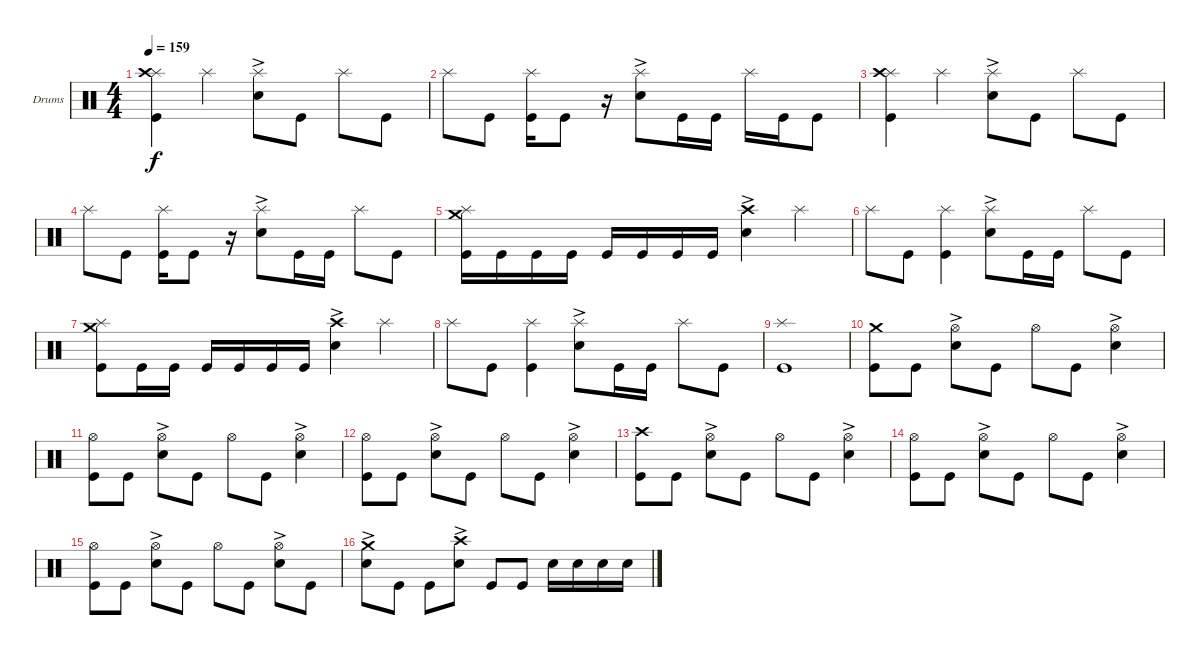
\defaultSystemsLayout 4
\bracketExtendMode groupsimilarinstruments
\firstSystemTrackNameOrientation horizontal
\otherSystemsTrackNameOrientation horizontal
\track ("Drumkit" "Drums") {instrument percussion}
\staff {score}
\articulation defaults
\ts (4 4)
\tempo 159
\clef neutral
\ks c
("Kick (hit)" "Splash (hit)" "Crash high (hit)").4{dy f} "Splash (hit)".4 ("Splash (hit)" "Snare (hit) 2"{ac}).8 "Kick (hit)".8 "Splash (hit)".8 "Kick (hit)".8 |
"Splash (hit)".8 "Kick (hit)".8 ("Kick (hit)" "Splash (hit)").16 "Kick (hit)".8 r.16 ("Splash (hit)" "Snare (hit) 2"{ac}).8 "Kick (hit)".16 "Kick (hit)".16 "Splash (hit)".16 "Kick (hit)".16 "Kick (hit)".8 |
("Kick (hit)" "Splash (hit)" "Crash high (hit)").4 "Splash (hit)".4 ("Splash (hit)" "Snare (hit) 2"{ac}).8 "Kick (hit)".8 "Splash (hit)".8 "Kick (hit)".8 |
"Splash (hit)".8 "Kick (hit)".8 ("Kick (hit)" "Splash (hit)").16 "Kick (hit)".8 r.16 ("Splash (hit)" "Snare (hit) 2"{ac}).8 "Kick (hit)".16 "Kick (hit)".16 "Splash (hit)".8 "Kick (hit)".8 |
("Kick (hit)" "Splash (hit)" "Crash medium (hit)").16 "Kick (hit)".16 "Kick (hit)".16 "Kick (hit)".16 "Kick (hit)".16 "Kick (hit)".16 "Kick (hit)".16 "Kick (hit)".16 ("Snare (hit) 2"{ac} "Crash high (hit)").4 "Splash (hit)".4 |
"Splash (hit)".8 "Kick (hit)".8 ("Kick (hit)" "Splash (hit)").4 ("Splash (hit)" "Snare (hit) 2"{ac}).8 "Kick (hit)".16 "Kick (hit)".16 "Splash (hit)".8 "Kick (hit)".8 |
("Kick (hit)" "Splash (hit)" "Crash medium (hit)").8 "Kick (hit)".16 "Kick (hit)".16 "Kick (hit)".16 "Kick (hit)".16 "Kick (hit)".16 "Kick (hit)".16 ("Snare (hit) 2"{ac} "Crash high (hit)").4 "Splash (hit)".4 |
"Splash (hit)".8 "Kick (hit)".8 ("Kick (hit)" "Splash (hit)").4 ("Splash (hit)" "Snare (hit) 2"{ac}).8 "Kick (hit)".16 "Kick (hit)".16 "Splash (hit)".8 "Kick (hit)".8 |
("Kick (hit)" "Splash (hit)").1 |
("Kick (hit)" "Crash medium (hit)").8 "Kick (hit)".8 ("Snare (hit) 2"{ac} "Hi-Hat (open)").8 "Kick (hit)".8 "Hi-Hat (open)".8 "Kick (hit)".8 ("Snare (hit) 2"{ac} "Hi-Hat (open)").4 |
("Kick (hit)" "Hi-Hat (open)").8 "Kick (hit)".8 ("Snare (hit) 2"{ac} "Hi-Hat (open)").8 "Kick (hit)".8 "Hi-Hat (open)".8 "Kick (hit)".8 ("Snare (hit) 2"{ac} "Hi-Hat (open)").4 |
("Kick (hit)" "Hi-Hat (open)").8 "Kick (hit)".8 ("Snare (hit) 2"{ac} "Hi-Hat (open)").8 "Kick (hit)".8 "Hi-Hat (open)".8 "Kick (hit)".8 ("Snare (hit) 2"{ac} "Hi-Hat (open)").4 |
("Kick (hit)" "Crash high (hit)").8 "Kick (hit)".8 ("Snare (hit) 2"{ac} "Hi-Hat (open)").8 "Kick (hit)".8 "Hi-Hat (open)".8 "Kick (hit)".8 ("Snare (hit) 2"{ac} "Hi-Hat (open)").4 |
("Kick (hit)" "Hi-Hat (open)").8 "Kick (hit)".8 ("Snare (hit) 2"{ac} "Hi-Hat (open)").8 "Kick (hit)".8 "Hi-Hat (open)".8 "Kick (hit)".8 ("Snare (hit) 2"{ac} "Hi-Hat (open)").4 |
("Kick (hit)" "Hi-Hat (open)").8 "Kick (hit)".8 ("Snare (hit) 2"{ac} "Hi-Hat (open)").8 "Kick (hit)".8 "Hi-Hat (open)".8 "Kick (hit)".8 ("Snare (hit) 2"{ac} "Hi-Hat (open)").8 "Kick (hit)".8 |
("Snare (hit) 2"{ac} "Crash medium (hit)").8 "Kick (hit)".8 "Kick (hit)".8 ("Snare (hit) 2"{ac} "Crash high (hit)").8 "Kick (hit)".8 "Kick (hit)".8 "Snare (hit) 2".16 "Snare (hit) 2".16 "Snare (hit) 2".16 "Snare (hit) 2".16
